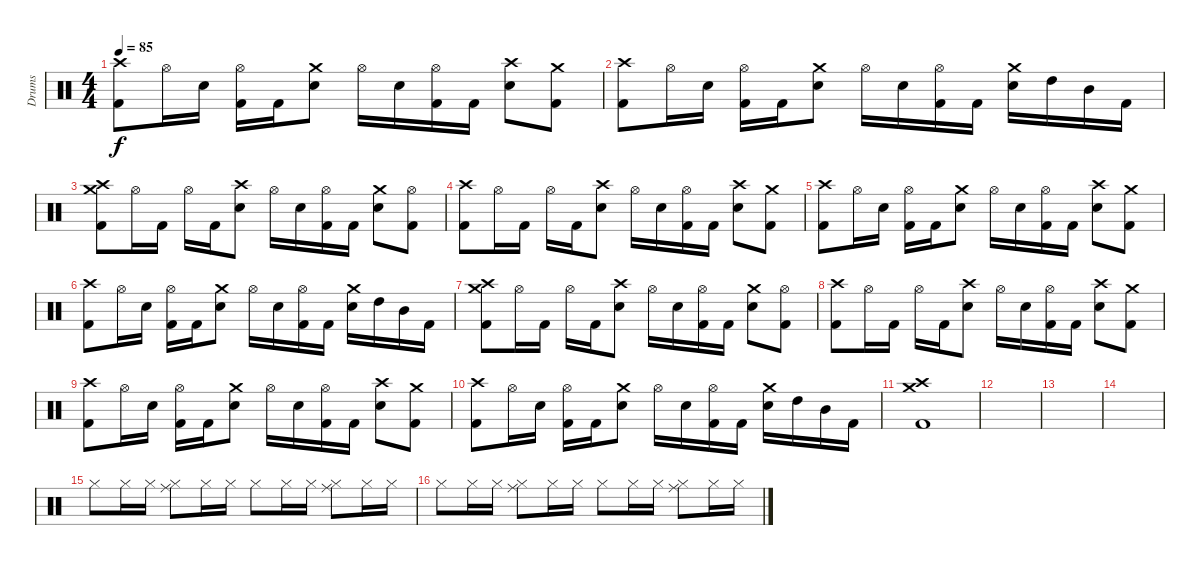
\track ("Drums" "Drums") {instrument percussion}
\staff {score}
\articulation defaults
\ts (4 4)
\tempo 85
\clef neutral
\ks c
("Crash high (hit)" "Kick (hit) 2").8{dy f} "Hi-Hat (open)".16 "Electric Snare (hit)".16 ("Hi-Hat (open)" "Kick (hit) 2").16 "Kick (hit) 2".16 ("Crash medium (hit)" "Electric Snare (hit)").8 "Hi-Hat (open)".16 "Electric Snare (hit)".16 ("Hi-Hat (open)" "Kick (hit) 2").16 "Kick (hit) 2".16 ("Crash high (hit)" "Electric Snare (hit)").8 ("Crash medium (hit)" "Kick (hit) 2").8 |
("Crash high (hit)" "Kick (hit) 2").8 "Hi-Hat (open)".16 "Electric Snare (hit)".16 ("Hi-Hat (open)" "Kick (hit) 2").16 "Kick (hit) 2".16 ("Crash medium (hit)" "Electric Snare (hit)").8 "Hi-Hat (open)".16 "Electric Snare (hit)".16 ("Hi-Hat (open)" "Kick (hit) 2").16 "Kick (hit) 2".16 ("Crash medium (hit)" "Electric Snare (hit)").16 "High Tom (hit)".16 "Mid Tom (hit)".16 "Kick (hit) 2".16 |
("Crash medium (hit)" "Crash high (hit)" "Kick (hit) 2").8 "Hi-Hat (open)".16 "Kick (hit) 2".16 "Hi-Hat (open)".16 "Kick (hit) 2".16 ("Crash high (hit)" "Electric Snare (hit)").8 "Hi-Hat (open)".16 "Electric Snare (hit)".16 ("Hi-Hat (open)" "Kick (hit) 2").16 "Kick (hit) 2".16 ("Crash medium (hit)" "Electric Snare (hit)").8 ("Hi-Hat (open)" "Kick (hit) 2").8 |
("Crash high (hit)" "Kick (hit) 2").8 "Hi-Hat (open)".16 "Kick (hit) 2".16 "Hi-Hat (open)".16 "Kick (hit) 2".16 ("Crash high (hit)" "Electric Snare (hit)").8 "Hi-Hat (open)".16 "Electric Snare (hit)".16 ("Hi-Hat (open)" "Kick (hit) 2").16 "Kick (hit) 2".16 ("Crash high (hit)" "Electric Snare (hit)").8 ("Crash medium (hit)" "Kick (hit) 2").8 |
("Crash high (hit)" "Kick (hit) 2").8 "Hi-Hat (open)".16 "Electric Snare (hit)".16 ("Hi-Hat (open)" "Kick (hit) 2").16 "Kick (hit) 2".16 ("Crash medium (hit)" "Electric Snare (hit)").8 "Hi-Hat (open)".16 "Electric Snare (hit)".16 ("Hi-Hat (open)" "Kick (hit) 2").16 "Kick (hit) 2".16 ("Crash high (hit)" "Electric Snare (hit)").8 ("Crash medium (hit)" "Kick (hit) 2").8 |
("Crash high (hit)" "Kick (hit) 2").8 "Hi-Hat (open)".16 "Electric Snare (hit)".16 ("Hi-Hat (open)" "Kick (hit) 2").16 "Kick (hit) 2".16 ("Crash medium (hit)" "Electric Snare (hit)").8 "Hi-Hat (open)".16 "Electric Snare (hit)".16 ("Hi-Hat (open)" "Kick (hit) 2").16 "Kick (hit) 2".16 ("Crash medium (hit)" "Electric Snare (hit)").16 "High Tom (hit)".16 "Mid Tom (hit)".16 "Kick (hit) 2".16 |
("Crash medium (hit)" "Crash high (hit)" "Kick (hit) 2").8 "Hi-Hat (open)".16 "Kick (hit) 2".16 "Hi-Hat (open)".16 "Kick (hit) 2".16 ("Crash high (hit)" "Electric Snare (hit)").8 "Hi-Hat (open)".16 "Electric Snare (hit)".16 ("Hi-Hat (open)" "Kick (hit) 2").16 "Kick (hit) 2".16 ("Crash medium (hit)" "Electric Snare (hit)").8 ("Hi-Hat (open)" "Kick (hit) 2").8 |
("Crash high (hit)" "Kick (hit) 2").8 "Hi-Hat (open)".16 "Kick (hit) 2".16 "Hi-Hat (open)".16 "Kick (hit) 2".16 ("Crash high (hit)" "Electric Snare (hit)").8 "Hi-Hat (open)".16 "Electric Snare (hit)".16 ("Hi-Hat (open)" "Kick (hit) 2").16 "Kick (hit) 2".16 ("Crash high (hit)" "Electric Snare (hit)").8 ("Crash medium (hit)" "Kick (hit) 2").8 |
("Crash high (hit)" "Kick (hit) 2").8 "Hi-Hat (open)".16 "Electric Snare (hit)".16 ("Hi-Hat (open)" "Kick (hit) 2").16 "Kick (hit) 2".16 ("Crash medium (hit)" "Electric Snare (hit)").8 "Hi-Hat (open)".16 "Electric Snare (hit)".16 ("Hi-Hat (open)" "Kick (hit) 2").16 "Kick (hit) 2".16 ("Crash high (hit)" "Electric Snare (hit)").8 ("Crash medium (hit)" "Kick (hit) 2").8 |
("Crash high (hit)" "Kick (hit) 2").8 "Hi-Hat (open)".16 "Electric Snare (hit)".16 ("Hi-Hat (open)" "Kick (hit) 2").16 "Kick (hit) 2".16 ("Crash medium (hit)" "Electric Snare (hit)").8 "Hi-Hat (open)".16 "Electric Snare (hit)".16 ("Hi-Hat (open)" "Kick (hit) 2").16 "Kick (hit) 2".16 ("Crash medium (hit)" "Electric Snare (hit)").16 "High Tom (hit)".16 "Mid Tom (hit)".16 "Kick (hit) 2".16 |
("Crash high (hit)" "Crash medium (hit)" "Kick (hit) 2").1 |
|
|
|
"Hi-Hat (closed)".8{volume 11} "Hi-Hat (closed)".16 "Hi-Hat (closed)".16 ("Hi-Hat (closed)" "Ride (middle)").8 "Hi-Hat (closed)".16 "Hi-Hat (closed)".16 "Hi-Hat (closed)".8 "Hi-Hat (closed)".16 "Hi-Hat (closed)".16 ("Hi-Hat (closed)" "Ride (middle)").8 "Hi-Hat (closed)".16 "Hi-Hat (closed)".16 |
"Hi-Hat (closed)".8{volume 11} "Hi-Hat (closed)".16 "Hi-Hat (closed)".16 ("Hi-Hat (closed)" "Ride (middle)").8 "Hi-Hat (closed)".16 "Hi-Hat (closed)".16 "Hi-Hat (closed)".8 "Hi-Hat (closed)".16 "Hi-Hat (closed)".16 ("Hi-Hat (closed)" "Ride (middle)").8 "Hi-Hat (closed)".16 "Hi-Hat (closed)".16
